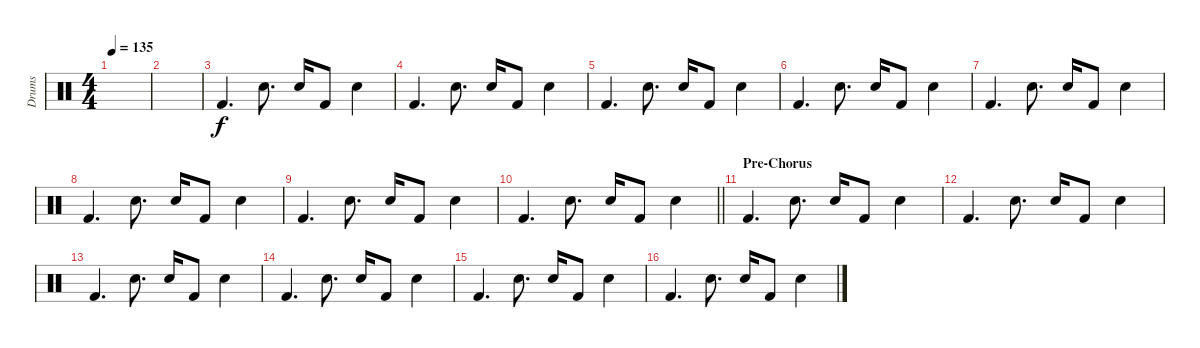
\track ("Drums" "Drums") {instrument percussion}
\staff {score}
\articulation defaults
\ts (4 4)
\tempo 135
\clef neutral
\ks c
|
|
"Kick (hit) 2".4{d} "Electric Snare (hit)".8{d} "Electric Snare (hit)".16 "Kick (hit) 2".8 "Electric Snare (hit)".4 |
"Kick (hit) 2".4{d} "Electric Snare (hit)".8{d} "Electric Snare (hit)".16 "Kick (hit) 2".8 "Electric Snare (hit)".4 |
"Kick (hit) 2".4{d} "Electric Snare (hit)".8{d} "Electric Snare (hit)".16 "Kick (hit) 2".8 "Electric Snare (hit)".4 |
"Kick (hit) 2".4{d} "Electric Snare (hit)".8{d} "Electric Snare (hit)".16 "Kick (hit) 2".8 "Electric Snare (hit)".4 |
"Kick (hit) 2".4{d} "Electric Snare (hit)".8{d} "Electric Snare (hit)".16 "Kick (hit) 2".8 "Electric Snare (hit)".4 |
"Kick (hit) 2".4{d} "Electric Snare (hit)".8{d} "Electric Snare (hit)".16 "Kick (hit) 2".8 "Electric Snare (hit)".4 |
"Kick (hit) 2".4{d} "Electric Snare (hit)".8{d} "Electric Snare (hit)".16 "Kick (hit) 2".8 "Electric Snare (hit)".4 |
\barLineRight lightlight "Kick (hit) 2".4{d} "Electric Snare (hit)".8{d} "Electric Snare (hit)".16 "Kick (hit) 2".8 "Electric Snare (hit)".4
|
\section ("" "Pre-Chorus")
"Kick (hit) 2".4{d} "Electric Snare (hit)".8{d} "Electric Snare (hit)".16 "Kick (hit) 2".8 "Electric Snare (hit)".4 |
"Kick (hit) 2".4{d} "Electric Snare (hit)".8{d} "Electric Snare (hit)".16 "Kick (hit) 2".8 "Electric Snare (hit)".4 |
"Kick (hit) 2".4{d} "Electric Snare (hit)".8{d} "Electric Snare (hit)".16 "Kick (hit) 2".8 "Electric Snare (hit)".4 |
"Kick (hit) 2".4{d} "Electric Snare (hit)".8{d} "Electric Snare (hit)".16 "Kick (hit) 2".8 "Electric Snare (hit)".4 |
"Kick (hit) 2".4{d} "Electric Snare (hit)".8{d} "Electric Snare (hit)".16 "Kick (hit) 2".8 "Electric Snare (hit)".4 |
"Kick (hit) 2".4{d} "Electric Snare (hit)".8{d} "Electric Snare (hit)".16 "Kick (hit) 2".8 "Electric Snare (hit)".4
